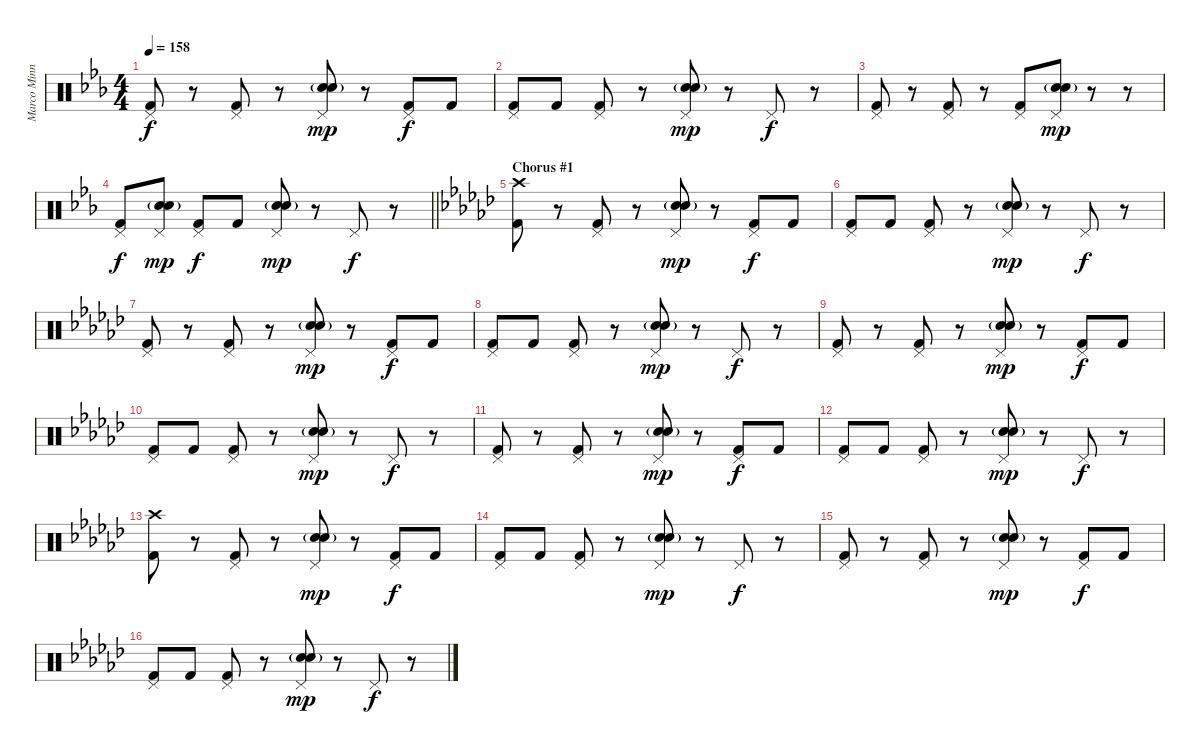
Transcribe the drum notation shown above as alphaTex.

\track ("Marco Minnemann (Drums)" "Marco Minn") {instrument percussion}
\staff {score}
\articulation defaults
\ts (4 4)
\tempo 158
\clef neutral
\ks eb
("Pedal Hi-Hat (hit)" "Kick (hit) 2").8{dy f} r.8 ("Pedal Hi-Hat (hit)" "Kick (hit) 2").8 r.8 ("Pedal Hi-Hat (hit)" "Snare (hit) 2"{g} "Electric Snare (hit)").8{dy mp} r.8 ("Pedal Hi-Hat (hit)" "Kick (hit) 2").8{dy f} "Kick (hit) 2".8 |
("Pedal Hi-Hat (hit)" "Kick (hit) 2").8 "Kick (hit) 2".8 ("Pedal Hi-Hat (hit)" "Kick (hit) 2").8 r.8 ("Pedal Hi-Hat (hit)" "Snare (hit) 2"{g} "Electric Snare (hit)").8{dy mp} r.8 "Pedal Hi-Hat (hit)".8{dy f} r.8 |
("Pedal Hi-Hat (hit)" "Kick (hit) 2").8 r.8 ("Pedal Hi-Hat (hit)" "Kick (hit) 2").8 r.8 ("Pedal Hi-Hat (hit)" "Kick (hit) 2").8 ("Pedal Hi-Hat (hit)" "Snare (hit) 2"{g} "Electric Snare (hit)").8{dy mp} r.8 r.8 |
\barLineRight lightlight
("Pedal Hi-Hat (hit)" "Kick (hit) 2").8{dy f} ("Pedal Hi-Hat (hit)" "Snare (hit) 2"{g} "Electric Snare (hit)").8{dy mp} ("Pedal Hi-Hat (hit)" "Kick (hit) 2").8{dy f} "Kick (hit) 2".8 ("Pedal Hi-Hat (hit)" "Snare (hit) 2"{g} "Electric Snare (hit)").8{dy mp} r.8 "Pedal Hi-Hat (hit)".8{dy f} r.8 |
\section ("" "Chorus #1")
\ks gb
("Crash high (hit)" "Kick (hit) 2").8 r.8 ("Pedal Hi-Hat (hit)" "Kick (hit) 2").8 r.8 ("Pedal Hi-Hat (hit)" "Snare (hit) 2"{g} "Electric Snare (hit)").8{dy mp} r.8 ("Pedal Hi-Hat (hit)" "Kick (hit) 2").8{dy f} "Kick (hit) 2".8 |
("Pedal Hi-Hat (hit)" "Kick (hit) 2").8 "Kick (hit) 2".8 ("Pedal Hi-Hat (hit)" "Kick (hit) 2").8 r.8 ("Pedal Hi-Hat (hit)" "Snare (hit) 2"{g} "Electric Snare (hit)").8{dy mp} r.8 "Pedal Hi-Hat (hit)".8{dy f} r.8 |
("Pedal Hi-Hat (hit)" "Kick (hit) 2").8 r.8 ("Pedal Hi-Hat (hit)" "Kick (hit) 2").8 r.8 ("Pedal Hi-Hat (hit)" "Snare (hit) 2"{g} "Electric Snare (hit)").8{dy mp} r.8 ("Pedal Hi-Hat (hit)" "Kick (hit) 2").8{dy f} "Kick (hit) 2".8 |
("Pedal Hi-Hat (hit)" "Kick (hit) 2").8 "Kick (hit) 2".8 ("Pedal Hi-Hat (hit)" "Kick (hit) 2").8 r.8 ("Pedal Hi-Hat (hit)" "Snare (hit) 2"{g} "Electric Snare (hit)").8{dy mp} r.8 "Pedal Hi-Hat (hit)".8{dy f} r.8 |
("Pedal Hi-Hat (hit)" "Kick (hit) 2").8 r.8 ("Pedal Hi-Hat (hit)" "Kick (hit) 2").8 r.8 ("Pedal Hi-Hat (hit)" "Snare (hit) 2"{g} "Electric Snare (hit)").8{dy mp} r.8 ("Pedal Hi-Hat (hit)" "Kick (hit) 2").8{dy f} "Kick (hit) 2".8 |
("Pedal Hi-Hat (hit)" "Kick (hit) 2").8 "Kick (hit) 2".8 ("Pedal Hi-Hat (hit)" "Kick (hit) 2").8 r.8 ("Pedal Hi-Hat (hit)" "Snare (hit) 2"{g} "Electric Snare (hit)").8{dy mp} r.8 "Pedal Hi-Hat (hit)".8{dy f} r.8 |
("Pedal Hi-Hat (hit)" "Kick (hit) 2").8 r.8 ("Pedal Hi-Hat (hit)" "Kick (hit) 2").8 r.8 ("Pedal Hi-Hat (hit)" "Snare (hit) 2"{g} "Electric Snare (hit)").8{dy mp} r.8 ("Pedal Hi-Hat (hit)" "Kick (hit) 2").8{dy f} "Kick (hit) 2".8 |
("Pedal Hi-Hat (hit)" "Kick (hit) 2").8 "Kick (hit) 2".8 ("Pedal Hi-Hat (hit)" "Kick (hit) 2").8 r.8 ("Pedal Hi-Hat (hit)" "Snare (hit) 2"{g} "Electric Snare (hit)").8{dy mp} r.8 "Pedal Hi-Hat (hit)".8{dy f} r.8 |
("Crash high (hit)" "Kick (hit) 2").8 r.8 ("Pedal Hi-Hat (hit)" "Kick (hit) 2").8 r.8 ("Pedal Hi-Hat (hit)" "Snare (hit) 2"{g} "Electric Snare (hit)").8{dy mp} r.8 ("Pedal Hi-Hat (hit)" "Kick (hit) 2").8{dy f} "Kick (hit) 2".8 |
("Pedal Hi-Hat (hit)" "Kick (hit) 2").8 "Kick (hit) 2".8 ("Pedal Hi-Hat (hit)" "Kick (hit) 2").8 r.8 ("Pedal Hi-Hat (hit)" "Snare (hit) 2"{g} "Electric Snare (hit)").8{dy mp} r.8 "Pedal Hi-Hat (hit)".8{dy f} r.8 |
("Pedal Hi-Hat (hit)" "Kick (hit) 2").8 r.8 ("Pedal Hi-Hat (hit)" "Kick (hit) 2").8 r.8 ("Pedal Hi-Hat (hit)" "Snare (hit) 2"{g} "Electric Snare (hit)").8{dy mp} r.8 ("Pedal Hi-Hat (hit)" "Kick (hit) 2").8{dy f} "Kick (hit) 2".8 |
("Pedal Hi-Hat (hit)" "Kick (hit) 2").8 "Kick (hit) 2".8 ("Pedal Hi-Hat (hit)" "Kick (hit) 2").8 r.8 ("Pedal Hi-Hat (hit)" "Snare (hit) 2"{g} "Electric Snare (hit)").8{dy mp} r.8 "Pedal Hi-Hat (hit)".8{dy f} r.8
